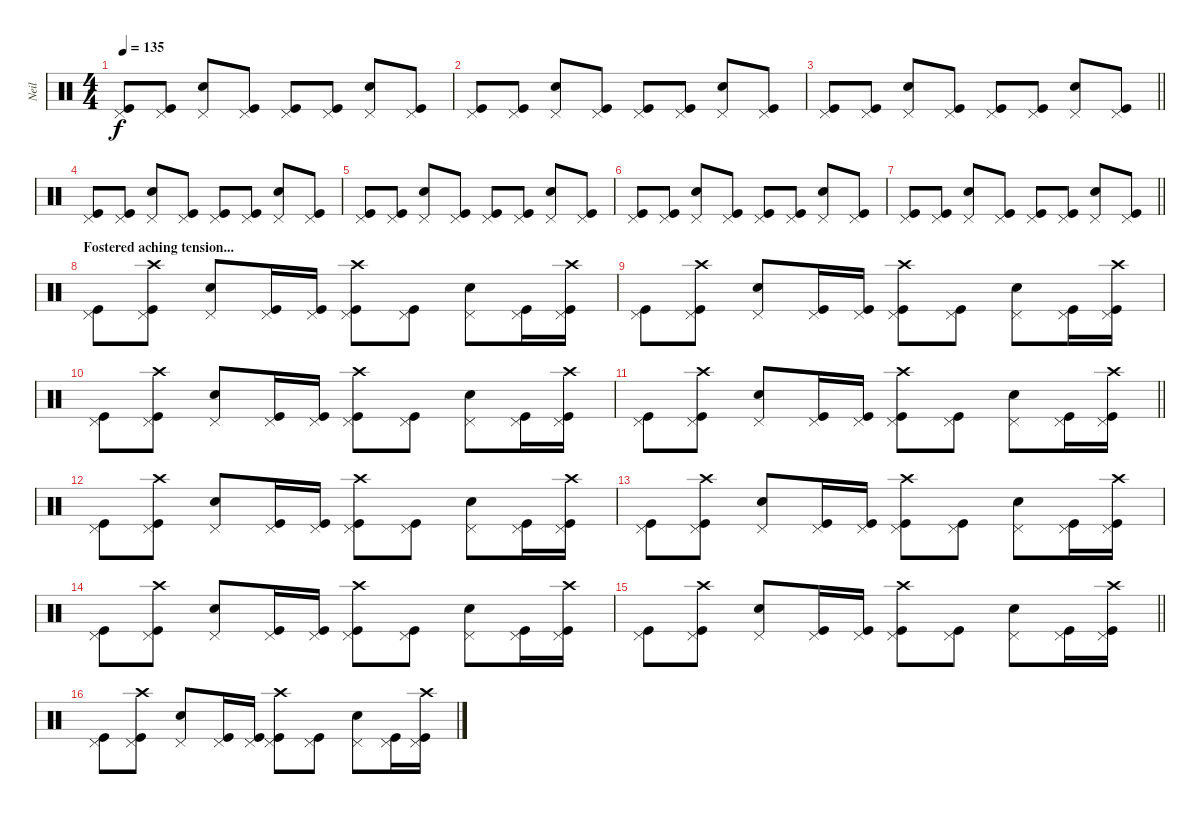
\track ("Neil" "Neil") {instrument percussion}
\staff {score}
\articulation defaults
\ts (4 4)
\tempo 135
\clef neutral
\ks c
("Pedal Hi-Hat (hit)" "Kick (hit)").8{dy f} ("Pedal Hi-Hat (hit)" "Kick (hit)").8 ("Pedal Hi-Hat (hit)" "Snare (hit) 2").8 ("Pedal Hi-Hat (hit)" "Kick (hit)").8 ("Pedal Hi-Hat (hit)" "Kick (hit)").8 ("Pedal Hi-Hat (hit)" "Kick (hit)").8 ("Pedal Hi-Hat (hit)" "Snare (hit) 2").8 ("Pedal Hi-Hat (hit)" "Kick (hit)").8 |
("Pedal Hi-Hat (hit)" "Kick (hit)").8 ("Pedal Hi-Hat (hit)" "Kick (hit)").8 ("Pedal Hi-Hat (hit)" "Snare (hit) 2").8 ("Pedal Hi-Hat (hit)" "Kick (hit)").8 ("Pedal Hi-Hat (hit)" "Kick (hit)").8 ("Pedal Hi-Hat (hit)" "Kick (hit)").8 ("Pedal Hi-Hat (hit)" "Snare (hit) 2").8 ("Pedal Hi-Hat (hit)" "Kick (hit)").8 |
\barLineRight lightlight
("Pedal Hi-Hat (hit)" "Kick (hit)").8 ("Pedal Hi-Hat (hit)" "Kick (hit)").8 ("Pedal Hi-Hat (hit)" "Snare (hit) 2").8 ("Pedal Hi-Hat (hit)" "Kick (hit)").8 ("Pedal Hi-Hat (hit)" "Kick (hit)").8 ("Pedal Hi-Hat (hit)" "Kick (hit)").8 ("Pedal Hi-Hat (hit)" "Snare (hit) 2").8 ("Pedal Hi-Hat (hit)" "Kick (hit)").8 |
("Pedal Hi-Hat (hit)" "Kick (hit)").8 ("Pedal Hi-Hat (hit)" "Kick (hit)").8 ("Pedal Hi-Hat (hit)" "Snare (hit) 2").8 ("Pedal Hi-Hat (hit)" "Kick (hit)").8 ("Pedal Hi-Hat (hit)" "Kick (hit)").8 ("Pedal Hi-Hat (hit)" "Kick (hit)").8 ("Pedal Hi-Hat (hit)" "Snare (hit) 2").8 ("Pedal Hi-Hat (hit)" "Kick (hit)").8 |
("Pedal Hi-Hat (hit)" "Kick (hit)").8 ("Pedal Hi-Hat (hit)" "Kick (hit)").8 ("Pedal Hi-Hat (hit)" "Snare (hit) 2").8 ("Pedal Hi-Hat (hit)" "Kick (hit)").8 ("Pedal Hi-Hat (hit)" "Kick (hit)").8 ("Pedal Hi-Hat (hit)" "Kick (hit)").8 ("Pedal Hi-Hat (hit)" "Snare (hit) 2").8 ("Pedal Hi-Hat (hit)" "Kick (hit)").8 |
("Pedal Hi-Hat (hit)" "Kick (hit)").8 ("Pedal Hi-Hat (hit)" "Kick (hit)").8 ("Pedal Hi-Hat (hit)" "Snare (hit) 2").8 ("Pedal Hi-Hat (hit)" "Kick (hit)").8 ("Pedal Hi-Hat (hit)" "Kick (hit)").8 ("Pedal Hi-Hat (hit)" "Kick (hit)").8 ("Pedal Hi-Hat (hit)" "Snare (hit) 2").8 ("Pedal Hi-Hat (hit)" "Kick (hit)").8 |
\barLineRight lightlight
("Pedal Hi-Hat (hit)" "Kick (hit)").8 ("Pedal Hi-Hat (hit)" "Kick (hit)").8 ("Pedal Hi-Hat (hit)" "Snare (hit) 2").8 ("Pedal Hi-Hat (hit)" "Kick (hit)").8 ("Pedal Hi-Hat (hit)" "Kick (hit)").8 ("Pedal Hi-Hat (hit)" "Kick (hit)").8 ("Pedal Hi-Hat (hit)" "Snare (hit) 2").8 ("Pedal Hi-Hat (hit)" "Kick (hit)").8 |
\section ("" "Fostered aching tension...")
("Pedal Hi-Hat (hit)" "Kick (hit)").8 ("Crash high (hit)" "Pedal Hi-Hat (hit)" "Kick (hit)").8 ("Pedal Hi-Hat (hit)" "Snare (hit) 2").8 ("Pedal Hi-Hat (hit)" "Kick (hit)").16 ("Pedal Hi-Hat (hit)" "Kick (hit)").16 ("Crash high (hit)" "Pedal Hi-Hat (hit)" "Kick (hit)").8 ("Pedal Hi-Hat (hit)" "Kick (hit)").8 ("Pedal Hi-Hat (hit)" "Snare (hit) 2").8 ("Pedal Hi-Hat (hit)" "Kick (hit)").16 ("Crash high (hit)" "Pedal Hi-Hat (hit)" "Kick (hit)").16 |
("Pedal Hi-Hat (hit)" "Kick (hit)").8 ("Crash high (hit)" "Pedal Hi-Hat (hit)" "Kick (hit)").8 ("Pedal Hi-Hat (hit)" "Snare (hit) 2").8 ("Pedal Hi-Hat (hit)" "Kick (hit)").16 ("Pedal Hi-Hat (hit)" "Kick (hit)").16 ("Crash high (hit)" "Pedal Hi-Hat (hit)" "Kick (hit)").8 ("Pedal Hi-Hat (hit)" "Kick (hit)").8 ("Pedal Hi-Hat (hit)" "Snare (hit) 2").8 ("Pedal Hi-Hat (hit)" "Kick (hit)").16 ("Crash high (hit)" "Pedal Hi-Hat (hit)" "Kick (hit)").16 |
("Pedal Hi-Hat (hit)" "Kick (hit)").8 ("Crash high (hit)" "Pedal Hi-Hat (hit)" "Kick (hit)").8 ("Pedal Hi-Hat (hit)" "Snare (hit) 2").8 ("Pedal Hi-Hat (hit)" "Kick (hit)").16 ("Pedal Hi-Hat (hit)" "Kick (hit)").16 ("Crash high (hit)" "Pedal Hi-Hat (hit)" "Kick (hit)").8 ("Pedal Hi-Hat (hit)" "Kick (hit)").8 ("Pedal Hi-Hat (hit)" "Snare (hit) 2").8 ("Pedal Hi-Hat (hit)" "Kick (hit)").16 ("Crash high (hit)" "Pedal Hi-Hat (hit)" "Kick (hit)").16 |
\barLineRight lightlight
("Pedal Hi-Hat (hit)" "Kick (hit)").8 ("Crash high (hit)" "Pedal Hi-Hat (hit)" "Kick (hit)").8 ("Pedal Hi-Hat (hit)" "Snare (hit) 2").8 ("Pedal Hi-Hat (hit)" "Kick (hit)").16 ("Pedal Hi-Hat (hit)" "Kick (hit)").16 ("Crash high (hit)" "Pedal Hi-Hat (hit)" "Kick (hit)").8 ("Pedal Hi-Hat (hit)" "Kick (hit)").8 ("Pedal Hi-Hat (hit)" "Snare (hit) 2").8 ("Pedal Hi-Hat (hit)" "Kick (hit)").16 ("Crash high (hit)" "Pedal Hi-Hat (hit)" "Kick (hit)").16 |
("Pedal Hi-Hat (hit)" "Kick (hit)").8 ("Crash high (hit)" "Pedal Hi-Hat (hit)" "Kick (hit)").8 ("Pedal Hi-Hat (hit)" "Snare (hit) 2").8 ("Pedal Hi-Hat (hit)" "Kick (hit)").16 ("Pedal Hi-Hat (hit)" "Kick (hit)").16 ("Crash high (hit)" "Pedal Hi-Hat (hit)" "Kick (hit)").8 ("Pedal Hi-Hat (hit)" "Kick (hit)").8 ("Pedal Hi-Hat (hit)" "Snare (hit) 2").8 ("Pedal Hi-Hat (hit)" "Kick (hit)").16 ("Crash high (hit)" "Pedal Hi-Hat (hit)" "Kick (hit)").16 |
("Pedal Hi-Hat (hit)" "Kick (hit)").8 ("Crash high (hit)" "Pedal Hi-Hat (hit)" "Kick (hit)").8 ("Pedal Hi-Hat (hit)" "Snare (hit) 2").8 ("Pedal Hi-Hat (hit)" "Kick (hit)").16 ("Pedal Hi-Hat (hit)" "Kick (hit)").16 ("Crash high (hit)" "Pedal Hi-Hat (hit)" "Kick (hit)").8 ("Pedal Hi-Hat (hit)" "Kick (hit)").8 ("Pedal Hi-Hat (hit)" "Snare (hit) 2").8 ("Pedal Hi-Hat (hit)" "Kick (hit)").16 ("Crash high (hit)" "Pedal Hi-Hat (hit)" "Kick (hit)").16 |
("Pedal Hi-Hat (hit)" "Kick (hit)").8 ("Crash high (hit)" "Pedal Hi-Hat (hit)" "Kick (hit)").8 ("Pedal Hi-Hat (hit)" "Snare (hit) 2").8 ("Pedal Hi-Hat (hit)" "Kick (hit)").16 ("Pedal Hi-Hat (hit)" "Kick (hit)").16 ("Crash high (hit)" "Pedal Hi-Hat (hit)" "Kick (hit)").8 ("Pedal Hi-Hat (hit)" "Kick (hit)").8 ("Pedal Hi-Hat (hit)" "Snare (hit) 2").8 ("Pedal Hi-Hat (hit)" "Kick (hit)").16 ("Crash high (hit)" "Pedal Hi-Hat (hit)" "Kick (hit)").16 |
\barLineRight lightlight
("Pedal Hi-Hat (hit)" "Kick (hit)").8 ("Crash high (hit)" "Pedal Hi-Hat (hit)" "Kick (hit)").8 ("Pedal Hi-Hat (hit)" "Snare (hit) 2").8 ("Pedal Hi-Hat (hit)" "Kick (hit)").16 ("Pedal Hi-Hat (hit)" "Kick (hit)").16 ("Crash high (hit)" "Pedal Hi-Hat (hit)" "Kick (hit)").8 ("Pedal Hi-Hat (hit)" "Kick (hit)").8 ("Pedal Hi-Hat (hit)" "Snare (hit) 2").8 ("Pedal Hi-Hat (hit)" "Kick (hit)").16 ("Crash high (hit)" "Pedal Hi-Hat (hit)" "Kick (hit)").16 |
("Pedal Hi-Hat (hit)" "Kick (hit)").8 ("Crash high (hit)" "Pedal Hi-Hat (hit)" "Kick (hit)").8 ("Pedal Hi-Hat (hit)" "Snare (hit) 2").8 ("Pedal Hi-Hat (hit)" "Kick (hit)").16 ("Pedal Hi-Hat (hit)" "Kick (hit)").16 ("Crash high (hit)" "Pedal Hi-Hat (hit)" "Kick (hit)").8 ("Pedal Hi-Hat (hit)" "Kick (hit)").8 ("Pedal Hi-Hat (hit)" "Snare (hit) 2").8 ("Pedal Hi-Hat (hit)" "Kick (hit)").16 ("Crash high (hit)" "Pedal Hi-Hat (hit)" "Kick (hit)").16
